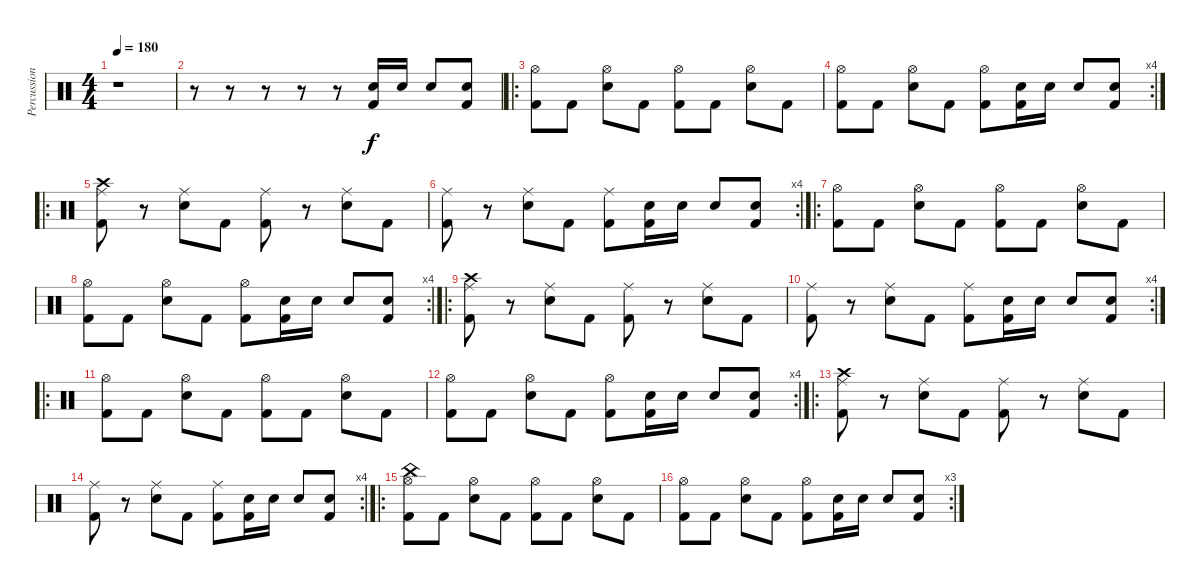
\track ("Percussions" "Percussion") {instrument percussion}
\staff {score}
\articulation defaults
\ts (4 4)
\tempo 180
\clef neutral
\ks c
r.1{dy f} |
r.8 r.8 r.8 r.8 r.8 ("Snare (hit) 2" "Kick (hit) 2").16 "Snare (hit) 2".16 "Snare (hit) 2".8 ("Snare (hit) 2" "Kick (hit) 2").8 |
\ro
("Hi-Hat (open)" "Kick (hit) 2").8 "Kick (hit) 2".8 ("Hi-Hat (open)" "Snare (hit) 2").8 "Kick (hit) 2".8 ("Hi-Hat (open)" "Kick (hit) 2").8 "Kick (hit) 2".8 ("Hi-Hat (open)" "Snare (hit) 2").8 "Kick (hit) 2".8 |
\rc 4
("Hi-Hat (open)" "Kick (hit) 2").8 "Kick (hit) 2".8 ("Hi-Hat (open)" "Snare (hit) 2").8 "Kick (hit) 2".8 ("Hi-Hat (open)" "Kick (hit) 2").8 ("Snare (hit) 2" "Kick (hit) 2").16 "Snare (hit) 2".16 "Snare (hit) 2".8 ("Snare (hit) 2" "Kick (hit) 2").8 |
\ro
("Ride (middle)" "Crash high (hit)" "Kick (hit) 2").8 r.8 ("Ride (middle)" "Snare (hit) 2").8 "Kick (hit) 2".8 ("Ride (middle)" "Kick (hit) 2").8 r.8 ("Ride (middle)" "Snare (hit) 2").8 "Kick (hit) 2".8 |
\rc 4
("Ride (middle)" "Kick (hit) 2").8 r.8 ("Ride (middle)" "Snare (hit) 2").8 "Kick (hit) 2".8 ("Ride (middle)" "Kick (hit) 2").8 ("Snare (hit) 2" "Kick (hit) 2").16 "Snare (hit) 2".16 "Snare (hit) 2".8 ("Snare (hit) 2" "Kick (hit) 2").8 |
\ro
("Hi-Hat (open)" "Kick (hit) 2").8 "Kick (hit) 2".8 ("Hi-Hat (open)" "Snare (hit) 2").8 "Kick (hit) 2".8 ("Hi-Hat (open)" "Kick (hit) 2").8 "Kick (hit) 2".8 ("Hi-Hat (open)" "Snare (hit) 2").8 "Kick (hit) 2".8 |
\rc 4
("Hi-Hat (open)" "Kick (hit) 2").8 "Kick (hit) 2".8 ("Hi-Hat (open)" "Snare (hit) 2").8 "Kick (hit) 2".8 ("Hi-Hat (open)" "Kick (hit) 2").8 ("Snare (hit) 2" "Kick (hit) 2").16 "Snare (hit) 2".16 "Snare (hit) 2".8 ("Snare (hit) 2" "Kick (hit) 2").8 |
\ro
("Ride (middle)" "Crash high (hit)" "Kick (hit) 2").8 r.8 ("Ride (middle)" "Snare (hit) 2").8 "Kick (hit) 2".8 ("Ride (middle)" "Kick (hit) 2").8 r.8 ("Ride (middle)" "Snare (hit) 2").8 "Kick (hit) 2".8 |
\rc 4
("Ride (middle)" "Kick (hit) 2").8 r.8 ("Ride (middle)" "Snare (hit) 2").8 "Kick (hit) 2".8 ("Ride (middle)" "Kick (hit) 2").8 ("Snare (hit) 2" "Kick (hit) 2").16 "Snare (hit) 2".16 "Snare (hit) 2".8 ("Snare (hit) 2" "Kick (hit) 2").8 |
\ro
("Hi-Hat (open)" "Kick (hit) 2").8 "Kick (hit) 2".8 ("Hi-Hat (open)" "Snare (hit) 2").8 "Kick (hit) 2".8 ("Hi-Hat (open)" "Kick (hit) 2").8 "Kick (hit) 2".8 ("Hi-Hat (open)" "Snare (hit) 2").8 "Kick (hit) 2".8 |
\rc 4
("Hi-Hat (open)" "Kick (hit) 2").8 "Kick (hit) 2".8 ("Hi-Hat (open)" "Snare (hit) 2").8 "Kick (hit) 2".8 ("Hi-Hat (open)" "Kick (hit) 2").8 ("Snare (hit) 2" "Kick (hit) 2").16 "Snare (hit) 2".16 "Snare (hit) 2".8 ("Snare (hit) 2" "Kick (hit) 2").8 |
\ro
("Ride (middle)" "Crash high (hit)" "Kick (hit) 2").8 r.8 ("Ride (middle)" "Snare (hit) 2").8 "Kick (hit) 2".8 ("Ride (middle)" "Kick (hit) 2").8 r.8 ("Ride (middle)" "Snare (hit) 2").8 "Kick (hit) 2".8 |
\rc 4
("Ride (middle)" "Kick (hit) 2").8 r.8 ("Ride (middle)" "Snare (hit) 2").8 "Kick (hit) 2".8 ("Ride (middle)" "Kick (hit) 2").8 ("Snare (hit) 2" "Kick (hit) 2").16 "Snare (hit) 2".16 "Snare (hit) 2".8 ("Snare (hit) 2" "Kick (hit) 2").8 |
\ro
("Hi-Hat (open)" "China (hit)" "Kick (hit) 2").8 "Kick (hit) 2".8 ("Hi-Hat (open)" "Snare (hit) 2").8 "Kick (hit) 2".8 ("Hi-Hat (open)" "Kick (hit) 2").8 "Kick (hit) 2".8 ("Hi-Hat (open)" "Snare (hit) 2").8 "Kick (hit) 2".8 |
\rc 3
("Hi-Hat (open)" "Kick (hit) 2").8 "Kick (hit) 2".8 ("Hi-Hat (open)" "Snare (hit) 2").8 "Kick (hit) 2".8 ("Hi-Hat (open)" "Kick (hit) 2").8 ("Snare (hit) 2" "Kick (hit) 2").16 "Snare (hit) 2".16 "Snare (hit) 2".8 ("Snare (hit) 2" "Kick (hit) 2").8
